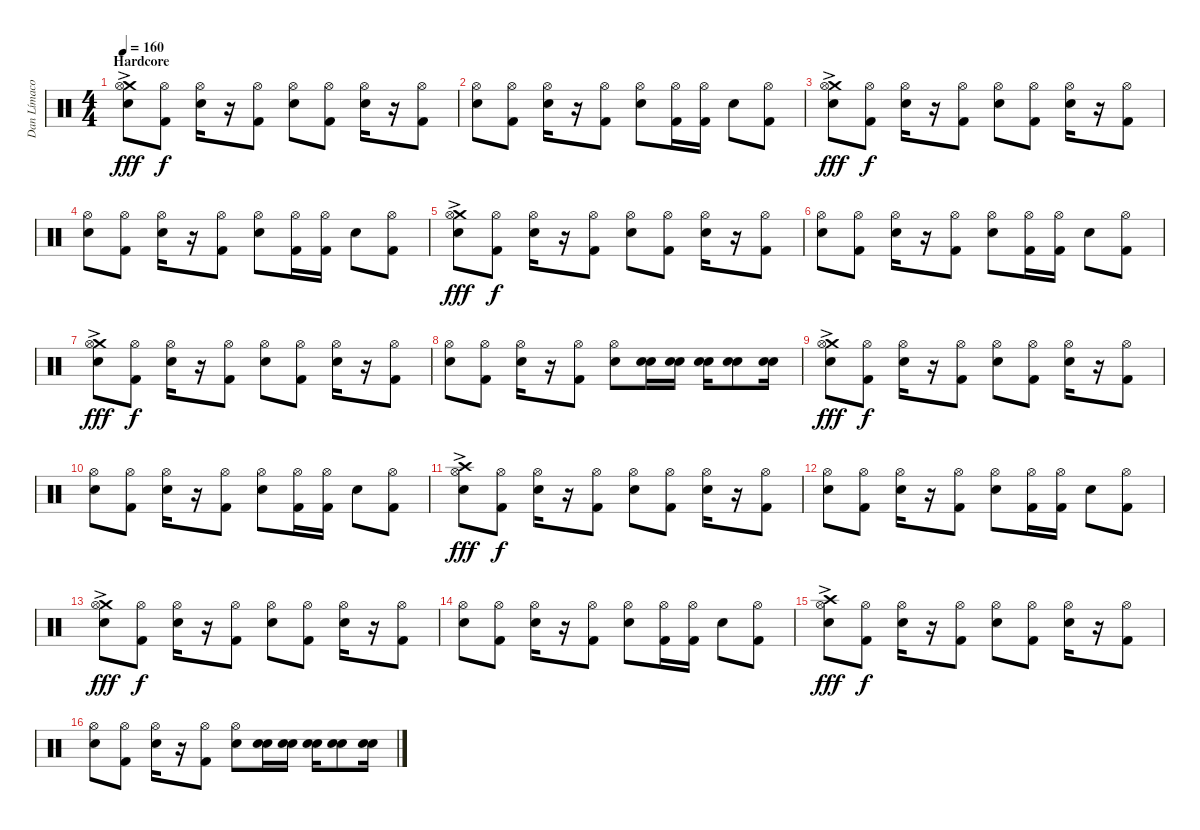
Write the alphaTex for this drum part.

\track ("Dan Límaco" "Dan Límaco") {instrument percussion}
\staff {score}
\articulation defaults
\ts (4 4)
\section ("" "Hardcore")
\tempo 160
\clef neutral
\ks c
("Crash medium (hit)"{ac} "Hi-Hat (open)" "Snare (hit) 2").8{dy fff volume 12} ("Hi-Hat (open)" "Kick (hit) 2").8{dy f} ("Hi-Hat (open)" "Snare (hit) 2").16 r.16 ("Hi-Hat (open)" "Kick (hit) 2").8 ("Hi-Hat (open)" "Snare (hit) 2").8 ("Hi-Hat (open)" "Kick (hit) 2").8 ("Hi-Hat (open)" "Snare (hit) 2").16 r.16 ("Hi-Hat (open)" "Kick (hit) 2").8 |
("Hi-Hat (open)" "Snare (hit) 2").8{volume 12} ("Hi-Hat (open)" "Kick (hit) 2").8 ("Hi-Hat (open)" "Snare (hit) 2").16 r.16 ("Hi-Hat (open)" "Kick (hit) 2").8 ("Hi-Hat (open)" "Snare (hit) 2").8 ("Hi-Hat (open)" "Kick (hit) 2").16 ("Hi-Hat (open)" "Kick (hit) 2").16 "Snare (hit) 2".8 ("Hi-Hat (open)" "Kick (hit) 2").8 |
("Crash medium (hit)"{ac} "Hi-Hat (open)" "Snare (hit) 2").8{dy fff volume 12} ("Hi-Hat (open)" "Kick (hit) 2").8{dy f} ("Hi-Hat (open)" "Snare (hit) 2").16 r.16 ("Hi-Hat (open)" "Kick (hit) 2").8 ("Hi-Hat (open)" "Snare (hit) 2").8 ("Hi-Hat (open)" "Kick (hit) 2").8 ("Hi-Hat (open)" "Snare (hit) 2").16 r.16 ("Hi-Hat (open)" "Kick (hit) 2").8 |
("Hi-Hat (open)" "Snare (hit) 2").8{volume 12} ("Hi-Hat (open)" "Kick (hit) 2").8 ("Hi-Hat (open)" "Snare (hit) 2").16 r.16 ("Hi-Hat (open)" "Kick (hit) 2").8 ("Hi-Hat (open)" "Snare (hit) 2").8 ("Hi-Hat (open)" "Kick (hit) 2").16 ("Hi-Hat (open)" "Kick (hit) 2").16 "Snare (hit) 2".8 ("Hi-Hat (open)" "Kick (hit) 2").8 |
("Crash medium (hit)"{ac} "Hi-Hat (open)" "Snare (hit) 2").8{dy fff volume 12} ("Hi-Hat (open)" "Kick (hit) 2").8{dy f} ("Hi-Hat (open)" "Snare (hit) 2").16 r.16 ("Hi-Hat (open)" "Kick (hit) 2").8 ("Hi-Hat (open)" "Snare (hit) 2").8 ("Hi-Hat (open)" "Kick (hit) 2").8 ("Hi-Hat (open)" "Snare (hit) 2").16 r.16 ("Hi-Hat (open)" "Kick (hit) 2").8 |
("Hi-Hat (open)" "Snare (hit) 2").8{volume 12} ("Hi-Hat (open)" "Kick (hit) 2").8 ("Hi-Hat (open)" "Snare (hit) 2").16 r.16 ("Hi-Hat (open)" "Kick (hit) 2").8 ("Hi-Hat (open)" "Snare (hit) 2").8 ("Hi-Hat (open)" "Kick (hit) 2").16 ("Hi-Hat (open)" "Kick (hit) 2").16 "Snare (hit) 2".8 ("Hi-Hat (open)" "Kick (hit) 2").8 |
("Crash medium (hit)"{ac} "Hi-Hat (open)" "Snare (hit) 2").8{dy fff volume 12} ("Hi-Hat (open)" "Kick (hit) 2").8{dy f} ("Hi-Hat (open)" "Snare (hit) 2").16 r.16 ("Hi-Hat (open)" "Kick (hit) 2").8 ("Hi-Hat (open)" "Snare (hit) 2").8 ("Hi-Hat (open)" "Kick (hit) 2").8 ("Hi-Hat (open)" "Snare (hit) 2").16 r.16 ("Hi-Hat (open)" "Kick (hit) 2").8 |
("Hi-Hat (open)" "Snare (hit) 2").8{volume 12} ("Hi-Hat (open)" "Kick (hit) 2").8 ("Hi-Hat (open)" "Snare (hit) 2").16 r.16 ("Hi-Hat (open)" "Kick (hit) 2").8 ("Hi-Hat (open)" "Snare (hit) 2").8 ("Snare (hit) 2" "Snare (hit) 2").16 ("Snare (hit) 2" "Snare (hit) 2").16 ("Snare (hit) 2" "Snare (hit) 2").16 ("Snare (hit) 2" "Snare (hit) 2").8 ("Snare (hit) 2" "Snare (hit) 2").16 |
("Crash medium (hit)"{ac} "Hi-Hat (open)" "Snare (hit) 2").8{dy fff volume 12} ("Hi-Hat (open)" "Kick (hit) 2").8{dy f} ("Hi-Hat (open)" "Snare (hit) 2").16 r.16 ("Hi-Hat (open)" "Kick (hit) 2").8 ("Hi-Hat (open)" "Snare (hit) 2").8 ("Hi-Hat (open)" "Kick (hit) 2").8 ("Hi-Hat (open)" "Snare (hit) 2").16 r.16 ("Hi-Hat (open)" "Kick (hit) 2").8 |
("Hi-Hat (open)" "Snare (hit) 2").8{volume 12} ("Hi-Hat (open)" "Kick (hit) 2").8 ("Hi-Hat (open)" "Snare (hit) 2").16 r.16 ("Hi-Hat (open)" "Kick (hit) 2").8 ("Hi-Hat (open)" "Snare (hit) 2").8 ("Hi-Hat (open)" "Kick (hit) 2").16 ("Hi-Hat (open)" "Kick (hit) 2").16 "Snare (hit) 2".8 ("Hi-Hat (open)" "Kick (hit) 2").8 |
("Crash high (hit)"{ac} "Hi-Hat (open)" "Snare (hit) 2").8{dy fff volume 12} ("Hi-Hat (open)" "Kick (hit) 2").8{dy f} ("Hi-Hat (open)" "Snare (hit) 2").16 r.16 ("Hi-Hat (open)" "Kick (hit) 2").8 ("Hi-Hat (open)" "Snare (hit) 2").8 ("Hi-Hat (open)" "Kick (hit) 2").8 ("Hi-Hat (open)" "Snare (hit) 2").16 r.16 ("Hi-Hat (open)" "Kick (hit) 2").8 |
("Hi-Hat (open)" "Snare (hit) 2").8{volume 12} ("Hi-Hat (open)" "Kick (hit) 2").8 ("Hi-Hat (open)" "Snare (hit) 2").16 r.16 ("Hi-Hat (open)" "Kick (hit) 2").8 ("Hi-Hat (open)" "Snare (hit) 2").8 ("Hi-Hat (open)" "Kick (hit) 2").16 ("Hi-Hat (open)" "Kick (hit) 2").16 "Snare (hit) 2".8 ("Hi-Hat (open)" "Kick (hit) 2").8 |
("Crash medium (hit)"{ac} "Hi-Hat (open)" "Snare (hit) 2").8{dy fff volume 12} ("Hi-Hat (open)" "Kick (hit) 2").8{dy f} ("Hi-Hat (open)" "Snare (hit) 2").16 r.16 ("Hi-Hat (open)" "Kick (hit) 2").8 ("Hi-Hat (open)" "Snare (hit) 2").8 ("Hi-Hat (open)" "Kick (hit) 2").8 ("Hi-Hat (open)" "Snare (hit) 2").16 r.16 ("Hi-Hat (open)" "Kick (hit) 2").8 |
("Hi-Hat (open)" "Snare (hit) 2").8{volume 12} ("Hi-Hat (open)" "Kick (hit) 2").8 ("Hi-Hat (open)" "Snare (hit) 2").16 r.16 ("Hi-Hat (open)" "Kick (hit) 2").8 ("Hi-Hat (open)" "Snare (hit) 2").8 ("Hi-Hat (open)" "Kick (hit) 2").16 ("Hi-Hat (open)" "Kick (hit) 2").16 "Snare (hit) 2".8 ("Hi-Hat (open)" "Kick (hit) 2").8 |
("Crash high (hit)"{ac} "Hi-Hat (open)" "Snare (hit) 2").8{dy fff volume 12} ("Hi-Hat (open)" "Kick (hit) 2").8{dy f} ("Hi-Hat (open)" "Snare (hit) 2").16 r.16 ("Hi-Hat (open)" "Kick (hit) 2").8 ("Hi-Hat (open)" "Snare (hit) 2").8 ("Hi-Hat (open)" "Kick (hit) 2").8 ("Hi-Hat (open)" "Snare (hit) 2").16 r.16 ("Hi-Hat (open)" "Kick (hit) 2").8 |
("Hi-Hat (open)" "Snare (hit) 2").8 ("Hi-Hat (open)" "Kick (hit) 2").8 ("Hi-Hat (open)" "Snare (hit) 2").16 r.16 ("Hi-Hat (open)" "Kick (hit) 2").8 ("Hi-Hat (open)" "Snare (hit) 2").8 ("Snare (hit) 2" "Snare (hit) 2").16 ("Snare (hit) 2" "Snare (hit) 2").16 ("Snare (hit) 2" "Snare (hit) 2").16 ("Snare (hit) 2" "Snare (hit) 2").8 ("Snare (hit) 2" "Snare (hit) 2").16
